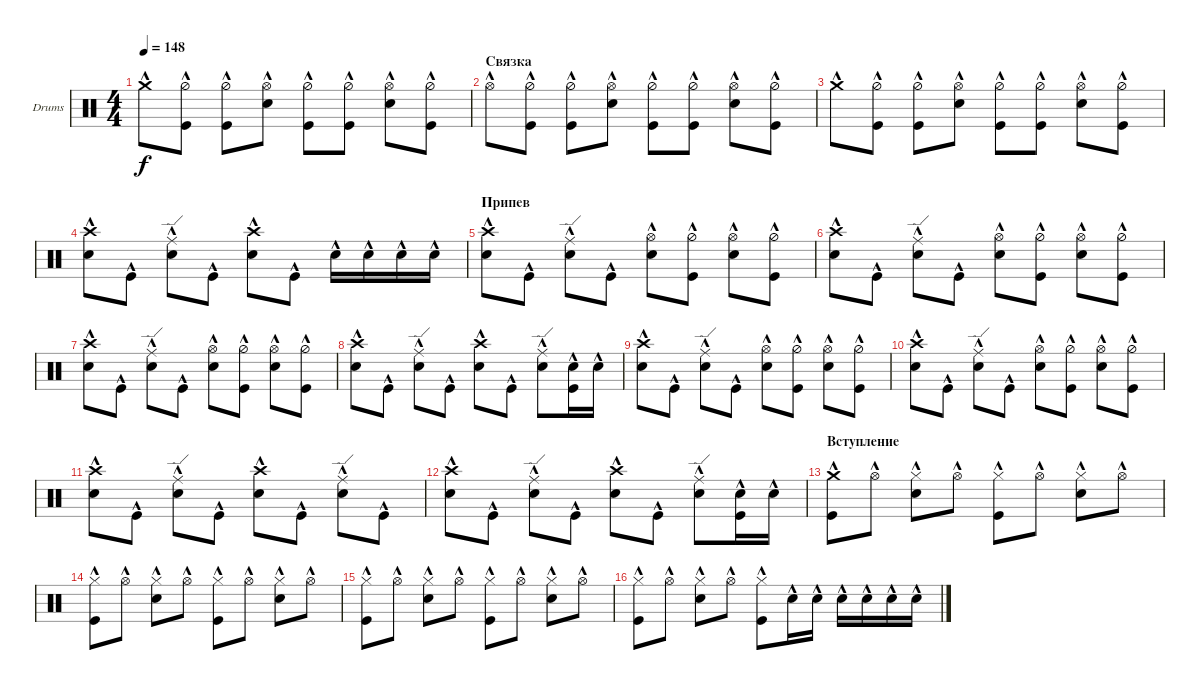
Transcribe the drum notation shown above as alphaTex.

\bracketExtendMode groupsimilarinstruments
\firstSystemTrackNameOrientation horizontal
\otherSystemsTrackNameOrientation horizontal
\track ("Drumkit" "Drums") {instrument percussion}
\staff {score}
\articulation defaults
\ts (4 4)
\tempo 148
\clef neutral
\ks c "Crash medium (hit)"{hac}.8{dy f}
("Hi-Hat (half)"{hac} "Kick (hit)"{hac}).8 ("Hi-Hat (half)"{hac} "Kick (hit)"{hac}).8 ("Snare (hit) 2"{hac} "Hi-Hat (open)"{hac}).8 ("Kick (hit)"{hac} "Hi-Hat (half)"{hac}).8 ("Hi-Hat (half)"{hac} "Kick (hit)"{hac}).8 ("Snare (hit) 2"{hac} "Hi-Hat (open)"{hac}).8 ("Hi-Hat (half)"{hac} "Kick (hit)"{hac}).8 |
\section ("" "Связка")
"Hi-Hat (open)"{hac}.8 ("Hi-Hat (half)"{hac} "Kick (hit)"{hac}).8 ("Hi-Hat (half)"{hac} "Kick (hit)"{hac}).8 ("Snare (hit) 2"{hac} "Hi-Hat (open)"{hac}).8 ("Kick (hit)"{hac} "Hi-Hat (half)"{hac}).8 ("Hi-Hat (half)"{hac} "Kick (hit)"{hac}).8 ("Snare (hit) 2"{hac} "Hi-Hat (open)"{hac}).8 ("Hi-Hat (half)"{hac} "Kick (hit)"{hac}).8 |
"Crash medium (hit)"{hac}.8 ("Hi-Hat (half)"{hac} "Kick (hit)"{hac}).8 ("Hi-Hat (half)"{hac} "Kick (hit)"{hac}).8 ("Snare (hit) 2"{hac} "Hi-Hat (open)"{hac}).8 ("Kick (hit)"{hac} "Hi-Hat (half)"{hac}).8 ("Hi-Hat (half)"{hac} "Kick (hit)"{hac}).8 ("Snare (hit) 2"{hac} "Hi-Hat (open)"{hac}).8 ("Hi-Hat (half)"{hac} "Kick (hit)"{hac}).8 |
("Crash high (hit)"{hac} "Snare (hit) 2"{hac}).8 "Kick (hit)"{hac}.8 ("Snare (hit) 2"{hac} "Ride (edge)"{hac}).8 "Kick (hit)"{hac}.8 ("Crash high (hit)"{hac} "Snare (hit) 2"{hac}).8 "Kick (hit)"{hac}.8 "Snare (hit) 2"{hac}.16 "Snare (hit) 2"{hac}.16 "Snare (hit) 2"{hac}.16 "Snare (hit) 2"{hac}.16 |
\section ("" "Припев")
("Snare (hit) 2"{hac} "Crash high (hit)"{hac}).8 "Kick (hit)"{hac}.8 ("Snare (hit) 2"{hac} "Ride (edge)"{hac}).8 "Kick (hit)"{hac}.8 ("Snare (hit) 2"{hac} "Hi-Hat (open)"{hac}).8 ("Kick (hit)"{hac} "Hi-Hat (half)"{hac}).8 ("Snare (hit) 2"{hac} "Hi-Hat (open)"{hac}).8 ("Kick (hit)"{hac} "Hi-Hat (half)"{hac}).8 |
("Snare (hit) 2"{hac} "Crash high (hit)"{hac}).8 "Kick (hit)"{hac}.8 ("Snare (hit) 2"{hac} "Ride (edge)"{hac}).8 "Kick (hit)"{hac}.8 ("Snare (hit) 2"{hac} "Hi-Hat (open)"{hac}).8 ("Kick (hit)"{hac} "Hi-Hat (half)"{hac}).8 ("Snare (hit) 2"{hac} "Hi-Hat (open)"{hac}).8 ("Kick (hit)"{hac} "Hi-Hat (half)"{hac}).8 |
("Snare (hit) 2"{hac} "Crash high (hit)"{hac}).8 "Kick (hit)"{hac}.8 ("Snare (hit) 2"{hac} "Ride (edge)"{hac}).8 "Kick (hit)"{hac}.8 ("Snare (hit) 2"{hac} "Hi-Hat (open)"{hac}).8 ("Kick (hit)"{hac} "Hi-Hat (half)"{hac}).8 ("Snare (hit) 2"{hac} "Hi-Hat (open)"{hac}).8 ("Kick (hit)"{hac} "Hi-Hat (half)"{hac}).8 |
("Snare (hit) 2"{hac} "Crash high (hit)"{hac}).8 "Kick (hit)"{hac}.8 ("Snare (hit) 2"{hac} "Ride (edge)"{hac}).8 "Kick (hit)"{hac}.8 ("Snare (hit) 2"{hac} "Crash high (hit)"{hac}).8 "Kick (hit)"{hac}.8 ("Snare (hit) 2"{hac} "Ride (edge)"{hac}).8 ("Kick (hit)"{hac} "Snare (hit) 2"{hac}).16 "Snare (hit) 2"{hac}.16 |
("Snare (hit) 2"{hac} "Crash high (hit)"{hac}).8 "Kick (hit)"{hac}.8 ("Snare (hit) 2"{hac} "Ride (edge)"{hac}).8 "Kick (hit)"{hac}.8 ("Snare (hit) 2"{hac} "Hi-Hat (open)"{hac}).8 ("Kick (hit)"{hac} "Hi-Hat (half)"{hac}).8 ("Snare (hit) 2"{hac} "Hi-Hat (open)"{hac}).8 ("Kick (hit)"{hac} "Hi-Hat (half)"{hac}).8 |
("Snare (hit) 2"{hac} "Crash high (hit)"{hac}).8 "Kick (hit)"{hac}.8 ("Snare (hit) 2"{hac} "Ride (edge)"{hac}).8 "Kick (hit)"{hac}.8 ("Snare (hit) 2"{hac} "Hi-Hat (open)"{hac}).8 ("Kick (hit)"{hac} "Hi-Hat (half)"{hac}).8 ("Snare (hit) 2"{hac} "Hi-Hat (open)"{hac}).8 ("Kick (hit)"{hac} "Hi-Hat (half)"{hac}).8 |
("Snare (hit) 2"{hac} "Crash high (hit)"{hac}).8 "Kick (hit)"{hac}.8 ("Snare (hit) 2"{hac} "Ride (edge)"{hac}).8 "Kick (hit)"{hac}.8 ("Snare (hit) 2"{hac} "Crash high (hit)"{hac}).8 "Kick (hit)"{hac}.8 ("Snare (hit) 2"{hac} "Ride (edge)"{hac}).8 "Kick (hit)"{hac}.8 |
("Snare (hit) 2"{hac} "Crash high (hit)"{hac}).8 "Kick (hit)"{hac}.8 ("Snare (hit) 2"{hac} "Ride (edge)"{hac}).8 "Kick (hit)"{hac}.8 ("Snare (hit) 2"{hac} "Crash high (hit)"{hac}).8 "Kick (hit)"{hac}.8 ("Snare (hit) 2"{hac} "Ride (edge)"{hac}).8 ("Kick (hit)"{hac} "Snare (hit) 2"{hac}).16 "Snare (hit) 2"{hac}.16 |
\section ("" "Вступление")
("Kick (hit)"{hac} "Crash medium (hit)"{hac}).8 "Hi-Hat (open)"{hac}.8 ("Snare (hit) 2"{hac} "Hi-Hat (closed)"{hac}).8 "Hi-Hat (open)"{hac}.8 ("Kick (hit)"{hac} "Hi-Hat (closed)"{hac}).8 "Hi-Hat (open)"{hac}.8 ("Snare (hit) 2"{hac} "Hi-Hat (closed)"{hac}).8 "Hi-Hat (open)"{hac}.8 |
("Kick (hit)"{hac} "Hi-Hat (closed)"{hac}).8 "Hi-Hat (open)"{hac}.8 ("Snare (hit) 2"{hac} "Hi-Hat (closed)"{hac}).8 "Hi-Hat (open)"{hac}.8 ("Kick (hit)"{hac} "Hi-Hat (closed)"{hac}).8 "Hi-Hat (open)"{hac}.8 ("Snare (hit) 2"{hac} "Hi-Hat (closed)"{hac}).8 "Hi-Hat (open)"{hac}.8 |
("Kick (hit)"{hac} "Hi-Hat (closed)"{hac}).8 "Hi-Hat (open)"{hac}.8 ("Snare (hit) 2"{hac} "Hi-Hat (closed)"{hac}).8 "Hi-Hat (open)"{hac}.8 ("Kick (hit)"{hac} "Hi-Hat (closed)"{hac}).8 "Hi-Hat (open)"{hac}.8 ("Snare (hit) 2"{hac} "Hi-Hat (closed)"{hac}).8 "Hi-Hat (open)"{hac}.8 |
("Kick (hit)"{hac} "Hi-Hat (closed)"{hac}).8 "Hi-Hat (open)"{hac}.8 ("Snare (hit) 2"{hac} "Hi-Hat (closed)"{hac}).8 "Hi-Hat (open)"{hac}.8 ("Kick (hit)"{hac} "Hi-Hat (closed)"{hac}).8 "Snare (hit) 2"{hac}.16 "Snare (hit) 2"{hac}.16 "Snare (hit) 2"{hac}.16 "Snare (hit) 2"{hac}.16 "Snare (hit) 2"{hac}.16 "Snare (hit) 2"{hac}.16
